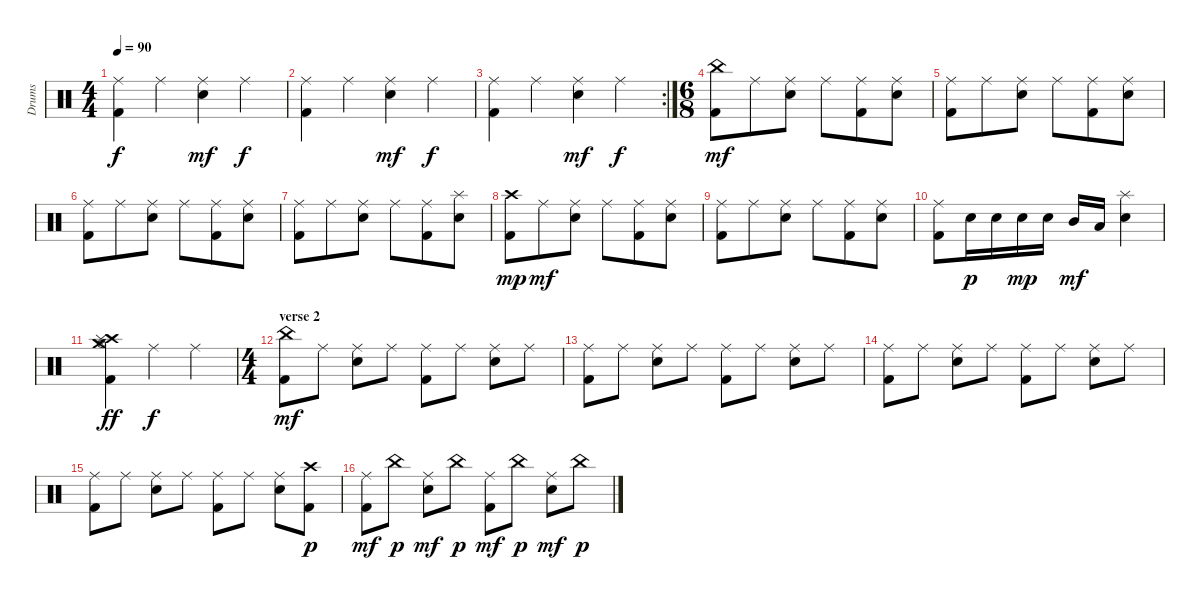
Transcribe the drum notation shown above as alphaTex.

\track ("Drums" "Drums") {instrument percussion}
\staff {score}
\articulation defaults
\ts (4 4)
\tempo 90
\clef neutral
\ks c
("Ride (middle)" "Kick (hit) 2").4{dy f} "Ride (middle)".4 ("Ride (middle)" "Electric Snare (hit)").4{dy mf} "Ride (middle)".4{dy f} |
("Ride (middle)" "Kick (hit) 2").4 "Ride (middle)".4 ("Ride (middle)" "Electric Snare (hit)").4{dy mf} "Ride (middle)".4{dy f} |
\rc 2
("Ride (middle)" "Kick (hit) 2").4 "Ride (middle)".4 ("Ride (middle)" "Electric Snare (hit)").4{dy mf} "Ride (middle)".4{dy f} |
\ts (6 8)
("China (hit)" "Kick (hit) 2").8{dy mf} "Ride (middle)".8 ("Ride (middle)" "Electric Snare (hit)").8 "Ride (middle)".8 ("Ride (middle)" "Kick (hit) 2").8 ("Ride (middle)" "Electric Snare (hit)").8 |
("Ride (middle)" "Kick (hit) 2").8 "Ride (middle)".8 ("Ride (middle)" "Electric Snare (hit)").8 "Ride (middle)".8 ("Ride (middle)" "Kick (hit) 2").8 ("Ride (middle)" "Electric Snare (hit)").8 |
("Ride (middle)" "Kick (hit) 2").8 "Ride (middle)".8 ("Ride (middle)" "Electric Snare (hit)").8 "Ride (middle)".8 ("Ride (middle)" "Kick (hit) 2").8 ("Ride (middle)" "Electric Snare (hit)").8 |
("Ride (middle)" "Kick (hit) 2").8 "Ride (middle)".8 ("Ride (middle)" "Electric Snare (hit)").8 "Ride (middle)".8 ("Ride (middle)" "Kick (hit) 2").8 ("Splash (hit)" "Electric Snare (hit)").8 |
("Crash high (hit)" "Kick (hit) 2").8{dy mp} "Ride (middle)".8{dy mf} ("Ride (middle)" "Electric Snare (hit)").8 "Ride (middle)".8 ("Ride (middle)" "Kick (hit) 2").8 ("Ride (middle)" "Electric Snare (hit)").8 |
("Ride (middle)" "Kick (hit) 2").8 "Ride (middle)".8 ("Ride (middle)" "Electric Snare (hit)").8 "Ride (middle)".8 ("Ride (middle)" "Kick (hit) 2").8 ("Ride (middle)" "Electric Snare (hit)").8 |
("Ride (middle)" "Kick (hit) 2").8 "Electric Snare (hit)".16{dy p} "Electric Snare (hit)".16 "Electric Snare (hit)".16{dy mp} "Electric Snare (hit)".16 "Mid Tom (hit)".16{dy mf} "Low Tom (hit)".16 ("Splash (hit)" "Electric Snare (hit)").4 |
("Crash medium (hit)" "Crash high (hit)" "Splash (hit)" "Hi-Hat (open)" "Kick (hit) 2").4{bd 30 dy ff} "Ride (middle)".4{dy f} "Ride (middle)".4 |
\ts (4 4)
\section ("" "verse 2")
("China (hit)" "Kick (hit) 2").8{dy mf} "Ride (middle)".8 ("Ride (middle)" "Electric Snare (hit)").8 "Ride (middle)".8 ("Ride (middle)" "Kick (hit) 2").8 "Ride (middle)".8 ("Ride (middle)" "Electric Snare (hit)").8 "Ride (middle)".8 |
("Ride (middle)" "Kick (hit) 2").8 "Ride (middle)".8 ("Ride (middle)" "Electric Snare (hit)").8 "Ride (middle)".8 ("Ride (middle)" "Kick (hit) 2").8 "Ride (middle)".8 ("Ride (middle)" "Electric Snare (hit)").8 "Ride (middle)".8 |
("Ride (middle)" "Kick (hit) 2").8 "Ride (middle)".8 ("Ride (middle)" "Electric Snare (hit)").8 "Ride (middle)".8 ("Ride (middle)" "Kick (hit) 2").8 "Ride (middle)".8 ("Ride (middle)" "Electric Snare (hit)").8 "Ride (middle)".8 |
("Ride (middle)" "Kick (hit) 2").8 "Ride (middle)".8 ("Ride (middle)" "Electric Snare (hit)").8 "Ride (middle)".8 ("Ride (middle)" "Kick (hit) 2").8 "Ride (middle)".8 ("Ride (middle)" "Electric Snare (hit)").8 ("Crash high (hit)" "Kick (hit) 2").8{dy p} |
("Ride (middle)" "Kick (hit) 2").8{dy mf} "China (hit)".8{dy p} ("Ride (middle)" "Electric Snare (hit)").8{dy mf} "China (hit)".8{dy p} ("Ride (middle)" "Kick (hit) 2").8{dy mf} "China (hit)".8{dy p} ("Ride (middle)" "Electric Snare (hit)").8{dy mf} "China (hit)".8{dy p}
